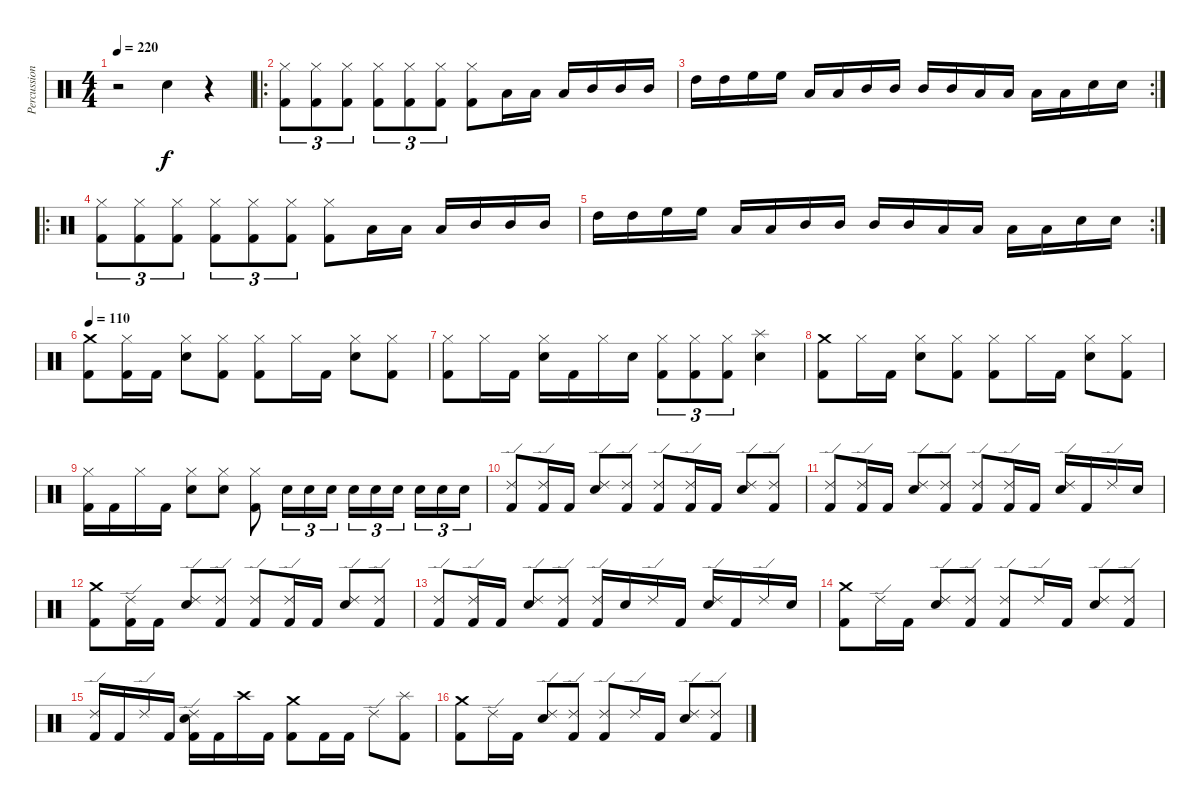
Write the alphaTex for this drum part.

\track ("Percussions" "Percussion") {instrument percussion}
\staff {score}
\articulation defaults
\ts (4 4)
\tempo 220
\clef neutral
\ks c
r.2{dy f} "Electric Snare (hit)".4 r.4 |
\ro
("Hi-Hat (closed)" "Kick (hit) 2").8{tu (3 2)} ("Hi-Hat (closed)" "Kick (hit) 2").8{tu (3 2)} ("Hi-Hat (closed)" "Kick (hit) 2").8{tu (3 2)} ("Hi-Hat (closed)" "Kick (hit) 2").8{tu (3 2)} ("Hi-Hat (closed)" "Kick (hit) 2").8{tu (3 2)} ("Hi-Hat (closed)" "Kick (hit) 2").8{tu (3 2)} ("Hi-Hat (closed)" "Kick (hit) 2").8 "Low Tom (hit)".16 "Low Tom (hit)".16 "Low Tom (hit)".16 "Mid Tom (hit)".16 "Mid Tom (hit)".16 "Mid Tom (hit)".16 |
\rc 2 "High Tom (hit)".16 "High Tom (hit)".16 "High Floor Tom (hit)".16 "High Floor Tom (hit)".16 "Low Tom (hit)".16 "Low Tom (hit)".16 "Mid Tom (hit)".16 "Mid Tom (hit)".16 "Mid Tom (hit)".16 "Mid Tom (hit)".16 "Low Tom (hit)".16 "Low Tom (hit)".16 "Low Tom (hit)".16 "Low Tom (hit)".16 "Electric Snare (hit)".16 "Electric Snare (hit)".16
|
\ro
("Hi-Hat (closed)" "Kick (hit) 2").8{tu (3 2)} ("Hi-Hat (closed)" "Kick (hit) 2").8{tu (3 2)} ("Hi-Hat (closed)" "Kick (hit) 2").8{tu (3 2)} ("Hi-Hat (closed)" "Kick (hit) 2").8{tu (3 2)} ("Hi-Hat (closed)" "Kick (hit) 2").8{tu (3 2)} ("Hi-Hat (closed)" "Kick (hit) 2").8{tu (3 2)} ("Hi-Hat (closed)" "Kick (hit) 2").8 "Low Tom (hit)".16 "Low Tom (hit)".16 "Low Tom (hit)".16 "Mid Tom (hit)".16 "Mid Tom (hit)".16 "Mid Tom (hit)".16 |
\rc 2 "High Tom (hit)".16 "High Tom (hit)".16 "High Floor Tom (hit)".16 "High Floor Tom (hit)".16 "Low Tom (hit)".16 "Low Tom (hit)".16 "Mid Tom (hit)".16 "Mid Tom (hit)".16 "Mid Tom (hit)".16 "Mid Tom (hit)".16 "Low Tom (hit)".16 "Low Tom (hit)".16 "Low Tom (hit)".16 "Low Tom (hit)".16 "Electric Snare (hit)".16 "Electric Snare (hit)".16
|
\tempo 110
("Crash medium (hit)" "Kick (hit) 2").8 ("Hi-Hat (closed)" "Kick (hit) 2").16 "Kick (hit) 2".16 ("Hi-Hat (closed)" "Electric Snare (hit)").8 ("Hi-Hat (closed)" "Kick (hit) 2").8 ("Hi-Hat (closed)" "Kick (hit) 2").8 "Hi-Hat (closed)".16 "Kick (hit) 2".16 ("Hi-Hat (closed)" "Electric Snare (hit)").8 ("Hi-Hat (closed)" "Kick (hit) 2").8 |
("Hi-Hat (closed)" "Kick (hit) 2").8 "Hi-Hat (closed)".16 "Kick (hit) 2".16 ("Hi-Hat (closed)" "Electric Snare (hit)").16 "Kick (hit) 2".16 "Hi-Hat (closed)".16 "Electric Snare (hit)".16 ("Hi-Hat (closed)" "Kick (hit) 2").8{tu (3 2)} ("Hi-Hat (closed)" "Kick (hit) 2").8{tu (3 2)} ("Hi-Hat (closed)" "Kick (hit) 2").8{tu (3 2)} ("Splash (hit)" "Electric Snare (hit)").4 |
("Crash medium (hit)" "Kick (hit) 2").8 "Hi-Hat (closed)".16 "Kick (hit) 2".16 ("Hi-Hat (closed)" "Electric Snare (hit)").8 ("Hi-Hat (closed)" "Kick (hit) 2").8 ("Hi-Hat (closed)" "Kick (hit) 2").8 "Hi-Hat (closed)".16 "Kick (hit) 2".16 ("Hi-Hat (closed)" "Electric Snare (hit)").8 ("Hi-Hat (closed)" "Kick (hit) 2").8 |
("Hi-Hat (closed)" "Kick (hit) 2").16 "Kick (hit) 2".16 "Hi-Hat (closed)".16 "Kick (hit) 2".16 ("Hi-Hat (closed)" "Electric Snare (hit)").8 ("Hi-Hat (closed)" "Electric Snare (hit)").8 ("Hi-Hat (closed)" "Kick (hit) 2").8 "Electric Snare (hit)".16{tu (3 2)} "Electric Snare (hit)".16{tu (3 2)} "Electric Snare (hit)".16{tu (3 2)} "Electric Snare (hit)".16{tu (3 2)} "Electric Snare (hit)".16{tu (3 2)} "Electric Snare (hit)".16{tu (3 2) beam splitsecondary} "Electric Snare (hit)".16{tu (3 2)} "Electric Snare (hit)".16{tu (3 2)} "Electric Snare (hit)".16{tu (3 2)} |
("Ride (edge) 2" "Kick (hit) 2").8 ("Ride (edge) 2" "Kick (hit) 2").16 "Kick (hit) 2".16 ("Ride (edge) 2" "Electric Snare (hit)").8 ("Ride (edge) 2" "Kick (hit) 2").8 ("Ride (edge) 2" "Kick (hit) 2").8 ("Ride (edge) 2" "Kick (hit) 2").16 "Kick (hit) 2".16 ("Ride (edge) 2" "Electric Snare (hit)").8 ("Ride (edge) 2" "Kick (hit) 2").8 |
("Ride (edge) 2" "Kick (hit) 2").8 ("Ride (edge) 2" "Kick (hit) 2").16 "Kick (hit) 2".16 ("Ride (edge) 2" "Electric Snare (hit)").8 ("Ride (edge) 2" "Kick (hit) 2").8 ("Ride (edge) 2" "Kick (hit) 2").8 ("Ride (edge) 2" "Kick (hit) 2").16 "Kick (hit) 2".16 ("Ride (edge) 2" "Electric Snare (hit)").16 "Kick (hit) 2".16 "Ride (edge) 2".16 "Electric Snare (hit)".16 |
("Crash medium (hit)" "Kick (hit) 2").8 ("Ride (edge) 2" "Kick (hit) 2").16 "Kick (hit) 2".16 ("Ride (edge) 2" "Electric Snare (hit)").8 ("Ride (edge) 2" "Kick (hit) 2").8 ("Ride (edge) 2" "Kick (hit) 2").8 ("Ride (edge) 2" "Kick (hit) 2").16 "Kick (hit) 2".16 ("Ride (edge) 2" "Electric Snare (hit)").8 ("Ride (edge) 2" "Kick (hit) 2").8 |
("Ride (edge) 2" "Kick (hit) 2").8 ("Ride (edge) 2" "Kick (hit) 2").16 "Kick (hit) 2".16 ("Ride (edge) 2" "Electric Snare (hit)").8 ("Ride (edge) 2" "Kick (hit) 2").8 ("Ride (edge) 2" "Kick (hit) 2").16 "Electric Snare (hit)".16 "Ride (edge) 2".16 "Kick (hit) 2".16 ("Ride (edge) 2" "Electric Snare (hit)").16 "Kick (hit) 2".16 "Ride (edge) 2".16 "Electric Snare (hit)".16 |
("Crash medium (hit)" "Kick (hit) 2").8 "Ride (edge) 2".16 "Kick (hit) 2".16 ("Ride (edge) 2" "Electric Snare (hit)").8 ("Ride (edge) 2" "Kick (hit) 2").8 ("Ride (edge) 2" "Kick (hit) 2").8 "Ride (edge) 2".16 "Kick (hit) 2".16 ("Ride (edge) 2" "Electric Snare (hit)").8 ("Ride (edge) 2" "Kick (hit) 2").8 |
("Ride (edge) 2" "Kick (hit) 2").16 "Kick (hit) 2".16 "Ride (edge) 2".16 "Kick (hit) 2".16 ("Ride (edge) 2" "Electric Snare (hit)" "Kick (hit) 2").16 "Kick (hit) 2".16 "Crash high (hit)".16 "Kick (hit) 2".16 ("Crash medium (hit)" "Kick (hit) 2").8 "Kick (hit) 2".16 "Kick (hit) 2".16 "Ride (edge) 2".8 ("Splash (hit)" "Kick (hit) 2").8 |
("Crash medium (hit)" "Kick (hit) 2").8 "Ride (edge) 2".16 "Kick (hit) 2".16 ("Ride (edge) 2" "Electric Snare (hit)").8 ("Ride (edge) 2" "Kick (hit) 2").8 ("Ride (edge) 2" "Kick (hit) 2").8 "Ride (edge) 2".16 "Kick (hit) 2".16 ("Ride (edge) 2" "Electric Snare (hit)").8 ("Ride (edge) 2" "Kick (hit) 2").8
